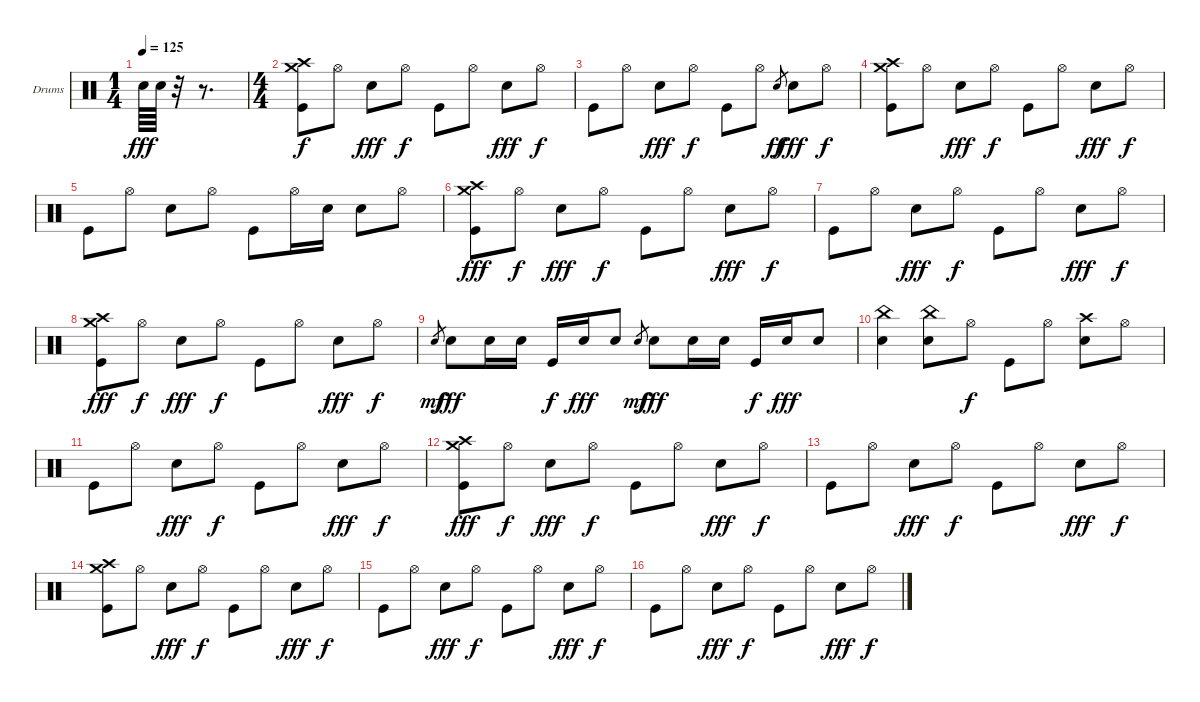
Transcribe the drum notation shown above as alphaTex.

\bracketExtendMode groupsimilarinstruments
\firstSystemTrackNameOrientation horizontal
\otherSystemsTrackNameOrientation horizontal
\track ("Drumkit" "Drums") {instrument percussion}
\staff {score}
\articulation defaults
\ts (1 4)
\tempo 125
\clef neutral
\ks c "Snare (hit) 2".64{dy fff} "Snare (hit) 2".64
r.32 r.8{d} |
\ts (4 4)
("Crash high (hit)" "Crash medium (hit)" "Kick (hit)").8{dy f} "Hi-Hat (open)".8 "Snare (hit) 2".8{dy fff} "Hi-Hat (open)".8{dy f} "Kick (hit)".8 "Hi-Hat (open)".8 "Snare (hit) 2".8{dy fff} "Hi-Hat (open)".8{dy f} |
"Kick (hit)".8 "Hi-Hat (open)".8 "Snare (hit) 2".8{dy fff} "Hi-Hat (open)".8{dy f} "Kick (hit)".8 "Hi-Hat (open)".8 "Snare (hit) 2".8{gr dy ff} "Snare (hit) 2".8{dy fff} "Hi-Hat (open)".8{dy f} |
("Crash high (hit)" "Crash medium (hit)" "Kick (hit)").8 "Hi-Hat (open)".8 "Snare (hit) 2".8{dy fff} "Hi-Hat (open)".8{dy f} "Kick (hit)".8 "Hi-Hat (open)".8 "Snare (hit) 2".8{dy fff} "Hi-Hat (open)".8{dy f} |
"Kick (hit)".8 "Hi-Hat (open)".8 "Snare (hit) 2".8 "Hi-Hat (open)".8 "Kick (hit)".8 "Hi-Hat (open)".16 "Snare (hit) 2".16 "Snare (hit) 2".8 "Hi-Hat (open)".8 |
("Crash high (hit)" "Crash medium (hit)" "Kick (hit)").8{dy fff} "Hi-Hat (open)".8{dy f} "Snare (hit) 2".8{dy fff} "Hi-Hat (open)".8{dy f} "Kick (hit)".8 "Hi-Hat (open)".8 "Snare (hit) 2".8{dy fff} "Hi-Hat (open)".8{dy f} |
"Kick (hit)".8 "Hi-Hat (open)".8 "Snare (hit) 2".8{dy fff} "Hi-Hat (open)".8{dy f} "Kick (hit)".8 "Hi-Hat (open)".8 "Snare (hit) 2".8{dy fff} "Hi-Hat (open)".8{dy f} |
("Crash high (hit)" "Crash medium (hit)" "Kick (hit)").8{dy fff} "Hi-Hat (open)".8{dy f} "Snare (hit) 2".8{dy fff} "Hi-Hat (open)".8{dy f} "Kick (hit)".8 "Hi-Hat (open)".8 "Snare (hit) 2".8{dy fff} "Hi-Hat (open)".8{dy f} |
"Snare (hit) 2".8{gr dy mf} "Snare (hit) 2".8{dy fff} "Snare (hit) 2".16 "Snare (hit) 2".16 "Kick (hit)".16{dy f} "Snare (hit) 2".16{dy fff} "Snare (hit) 2".8 "Snare (hit) 2".8{gr dy mf} "Snare (hit) 2".8{dy fff} "Snare (hit) 2".16 "Snare (hit) 2".16 "Kick (hit)".16{dy f} "Snare (hit) 2".16{dy fff} "Snare (hit) 2".8 |
("China (hit)" "Snare (hit) 2").4 ("China (hit)" "Snare (hit) 2").8 "Hi-Hat (open)".8{dy f} "Kick (hit)".8 "Hi-Hat (open)".8 ("Crash high (hit)" "Snare (hit) 2").8 "Hi-Hat (open)".8 |
"Kick (hit)".8 "Hi-Hat (open)".8 "Snare (hit) 2".8{dy fff} "Hi-Hat (open)".8{dy f} "Kick (hit)".8 "Hi-Hat (open)".8 "Snare (hit) 2".8{dy fff} "Hi-Hat (open)".8{dy f} |
("Crash high (hit)" "Crash medium (hit)" "Kick (hit)").8{dy fff} "Hi-Hat (open)".8{dy f} "Snare (hit) 2".8{dy fff} "Hi-Hat (open)".8{dy f} "Kick (hit)".8 "Hi-Hat (open)".8 "Snare (hit) 2".8{dy fff} "Hi-Hat (open)".8{dy f} |
"Kick (hit)".8 "Hi-Hat (open)".8 "Snare (hit) 2".8{dy fff} "Hi-Hat (open)".8{dy f} "Kick (hit)".8 "Hi-Hat (open)".8 "Snare (hit) 2".8{dy fff} "Hi-Hat (open)".8{dy f} |
("Crash high (hit)" "Crash medium (hit)" "Kick (hit)").8 "Hi-Hat (open)".8 "Snare (hit) 2".8{dy fff} "Hi-Hat (open)".8{dy f} "Kick (hit)".8 "Hi-Hat (open)".8 "Snare (hit) 2".8{dy fff} "Hi-Hat (open)".8{dy f} |
"Kick (hit)".8 "Hi-Hat (open)".8 "Snare (hit) 2".8{dy fff} "Hi-Hat (open)".8{dy f} "Kick (hit)".8 "Hi-Hat (open)".8 "Snare (hit) 2".8{dy fff} "Hi-Hat (open)".8{dy f} |
"Kick (hit)".8 "Hi-Hat (open)".8 "Snare (hit) 2".8{dy fff} "Hi-Hat (open)".8{dy f} "Kick (hit)".8 "Hi-Hat (open)".8 "Snare (hit) 2".8{dy fff} "Hi-Hat (open)".8{dy f}
